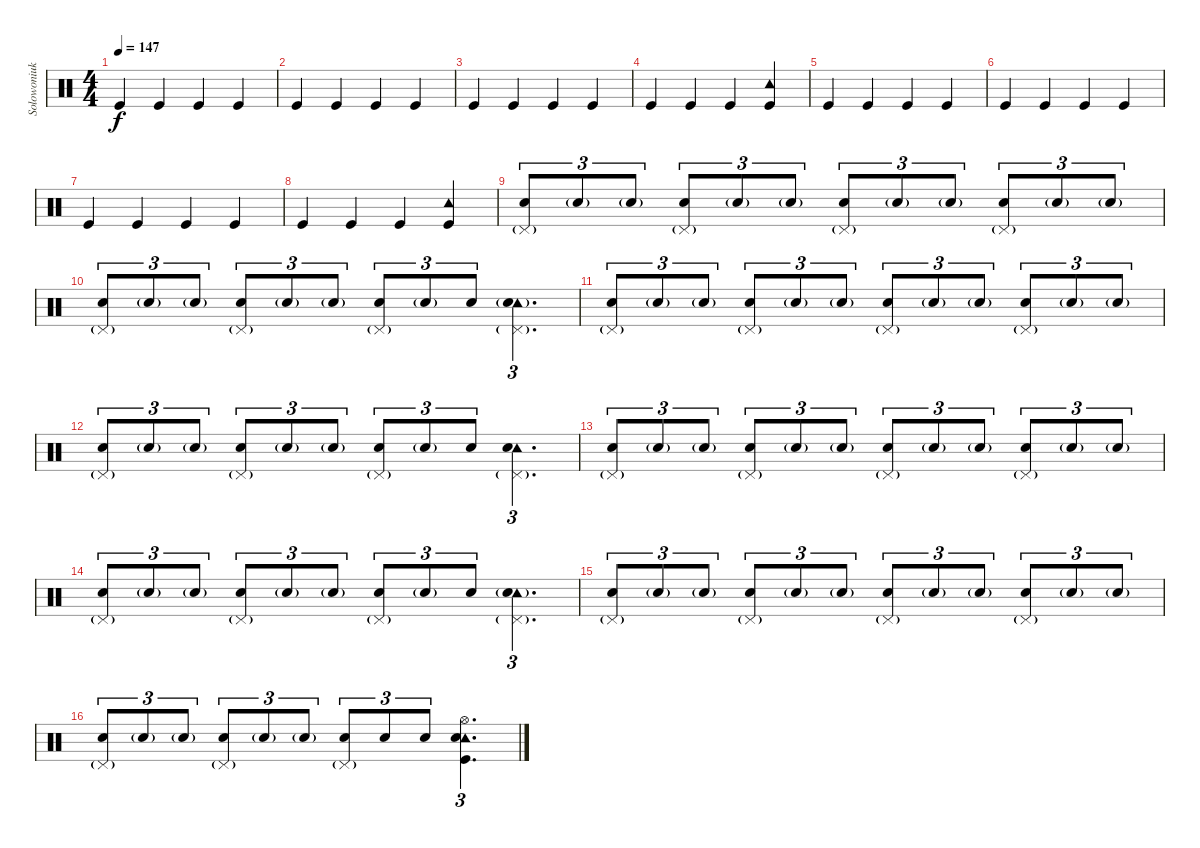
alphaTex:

\track ("Solowoniuk " "Solowoniuk") {instrument percussion}
\staff {score}
\articulation defaults
\ts (4 4)
\tempo 147
\clef neutral
\ks c "Kick (hit)".4{dy f} "Kick (hit)".4 "Kick (hit)".4 "Kick (hit)".4
|
"Kick (hit)".4 "Kick (hit)".4 "Kick (hit)".4 "Kick (hit)".4 |
"Kick (hit)".4 "Kick (hit)".4 "Kick (hit)".4 "Kick (hit)".4 |
"Kick (hit)".4 "Kick (hit)".4 "Kick (hit)".4 ("Tambourine (hit)" "Kick (hit)").4 |
"Kick (hit)".4 "Kick (hit)".4 "Kick (hit)".4 "Kick (hit)".4 |
"Kick (hit)".4 "Kick (hit)".4 "Kick (hit)".4 "Kick (hit)".4 |
"Kick (hit)".4 "Kick (hit)".4 "Kick (hit)".4 "Kick (hit)".4 |
"Kick (hit)".4 "Kick (hit)".4 "Kick (hit)".4 ("Tambourine (hit)" "Kick (hit)").4 |
("Pedal Hi-Hat (hit)"{g} "Snare (hit) 2").8{tu (3 2)} "Snare (hit) 2"{g}.8{tu (3 2)} "Snare (hit) 2"{g}.8{tu (3 2)} ("Pedal Hi-Hat (hit)"{g} "Snare (hit) 2").8{tu (3 2)} "Snare (hit) 2"{g}.8{tu (3 2)} "Snare (hit) 2"{g}.8{tu (3 2)} ("Pedal Hi-Hat (hit)"{g} "Snare (hit) 2").8{tu (3 2)} "Snare (hit) 2"{g}.8{tu (3 2)} "Snare (hit) 2"{g}.8{tu (3 2)} ("Pedal Hi-Hat (hit)"{g} "Snare (hit) 2").8{tu (3 2)} "Snare (hit) 2"{g}.8{tu (3 2)} "Snare (hit) 2"{g}.8{tu (3 2)} |
("Pedal Hi-Hat (hit)"{g} "Snare (hit) 2").8{tu (3 2)} "Snare (hit) 2"{g}.8{tu (3 2)} "Snare (hit) 2"{g}.8{tu (3 2)} ("Pedal Hi-Hat (hit)"{g} "Snare (hit) 2").8{tu (3 2)} "Snare (hit) 2"{g}.8{tu (3 2)} "Snare (hit) 2"{g}.8{tu (3 2)} ("Pedal Hi-Hat (hit)"{g} "Snare (hit) 2").8{tu (3 2)} "Snare (hit) 2"{g}.8{tu (3 2)} "Snare (hit) 2".8{tu (3 2)} ("Tambourine (hit)"{g} "Pedal Hi-Hat (hit)"{g} "Snare (hit) 2").4{d tu (3 2)} |
("Pedal Hi-Hat (hit)"{g} "Snare (hit) 2").8{tu (3 2)} "Snare (hit) 2"{g}.8{tu (3 2)} "Snare (hit) 2"{g}.8{tu (3 2)} ("Pedal Hi-Hat (hit)"{g} "Snare (hit) 2").8{tu (3 2)} "Snare (hit) 2"{g}.8{tu (3 2)} "Snare (hit) 2"{g}.8{tu (3 2)} ("Pedal Hi-Hat (hit)"{g} "Snare (hit) 2").8{tu (3 2)} "Snare (hit) 2"{g}.8{tu (3 2)} "Snare (hit) 2"{g}.8{tu (3 2)} ("Pedal Hi-Hat (hit)"{g} "Snare (hit) 2").8{tu (3 2)} "Snare (hit) 2"{g}.8{tu (3 2)} "Snare (hit) 2"{g}.8{tu (3 2)} |
("Pedal Hi-Hat (hit)"{g} "Snare (hit) 2").8{tu (3 2)} "Snare (hit) 2"{g}.8{tu (3 2)} "Snare (hit) 2"{g}.8{tu (3 2)} ("Pedal Hi-Hat (hit)"{g} "Snare (hit) 2").8{tu (3 2)} "Snare (hit) 2"{g}.8{tu (3 2)} "Snare (hit) 2"{g}.8{tu (3 2)} ("Pedal Hi-Hat (hit)"{g} "Snare (hit) 2").8{tu (3 2)} "Snare (hit) 2"{g}.8{tu (3 2)} "Snare (hit) 2".8{tu (3 2)} ("Tambourine (hit)" "Pedal Hi-Hat (hit)"{g} "Snare (hit) 2").4{d tu (3 2)} |
("Pedal Hi-Hat (hit)"{g} "Snare (hit) 2").8{tu (3 2)} "Snare (hit) 2"{g}.8{tu (3 2)} "Snare (hit) 2"{g}.8{tu (3 2)} ("Pedal Hi-Hat (hit)"{g} "Snare (hit) 2").8{tu (3 2)} "Snare (hit) 2"{g}.8{tu (3 2)} "Snare (hit) 2"{g}.8{tu (3 2)} ("Pedal Hi-Hat (hit)"{g} "Snare (hit) 2").8{tu (3 2)} "Snare (hit) 2"{g}.8{tu (3 2)} "Snare (hit) 2"{g}.8{tu (3 2)} ("Pedal Hi-Hat (hit)"{g} "Snare (hit) 2").8{tu (3 2)} "Snare (hit) 2"{g}.8{tu (3 2)} "Snare (hit) 2"{g}.8{tu (3 2)} |
("Pedal Hi-Hat (hit)"{g} "Snare (hit) 2").8{tu (3 2)} "Snare (hit) 2"{g}.8{tu (3 2)} "Snare (hit) 2"{g}.8{tu (3 2)} ("Pedal Hi-Hat (hit)"{g} "Snare (hit) 2").8{tu (3 2)} "Snare (hit) 2"{g}.8{tu (3 2)} "Snare (hit) 2"{g}.8{tu (3 2)} ("Pedal Hi-Hat (hit)"{g} "Snare (hit) 2").8{tu (3 2)} "Snare (hit) 2"{g}.8{tu (3 2)} "Snare (hit) 2".8{tu (3 2)} ("Tambourine (hit)"{g} "Pedal Hi-Hat (hit)"{g} "Snare (hit) 2").4{d tu (3 2)} |
("Pedal Hi-Hat (hit)"{g} "Snare (hit) 2").8{tu (3 2)} "Snare (hit) 2"{g}.8{tu (3 2)} "Snare (hit) 2"{g}.8{tu (3 2)} ("Pedal Hi-Hat (hit)"{g} "Snare (hit) 2").8{tu (3 2)} "Snare (hit) 2"{g}.8{tu (3 2)} "Snare (hit) 2"{g}.8{tu (3 2)} ("Pedal Hi-Hat (hit)"{g} "Snare (hit) 2").8{tu (3 2)} "Snare (hit) 2"{g}.8{tu (3 2)} "Snare (hit) 2"{g}.8{tu (3 2)} ("Pedal Hi-Hat (hit)"{g} "Snare (hit) 2").8{tu (3 2)} "Snare (hit) 2"{g}.8{tu (3 2)} "Snare (hit) 2"{g}.8{tu (3 2)} |
("Pedal Hi-Hat (hit)"{g} "Snare (hit) 2").8{tu (3 2)} "Snare (hit) 2"{g}.8{tu (3 2)} "Snare (hit) 2"{g}.8{tu (3 2)} ("Pedal Hi-Hat (hit)"{g} "Snare (hit) 2").8{tu (3 2)} "Snare (hit) 2"{g}.8{tu (3 2)} "Snare (hit) 2"{g}.8{tu (3 2)} ("Pedal Hi-Hat (hit)"{g} "Snare (hit) 2").8{tu (3 2)} "Snare (hit) 2".8{tu (3 2)} "Snare (hit) 2".8{tu (3 2)} ("Tambourine (hit)" "Hi-Hat (open)" "Snare (hit) 2" "Kick (hit)").4{d tu (3 2)}
